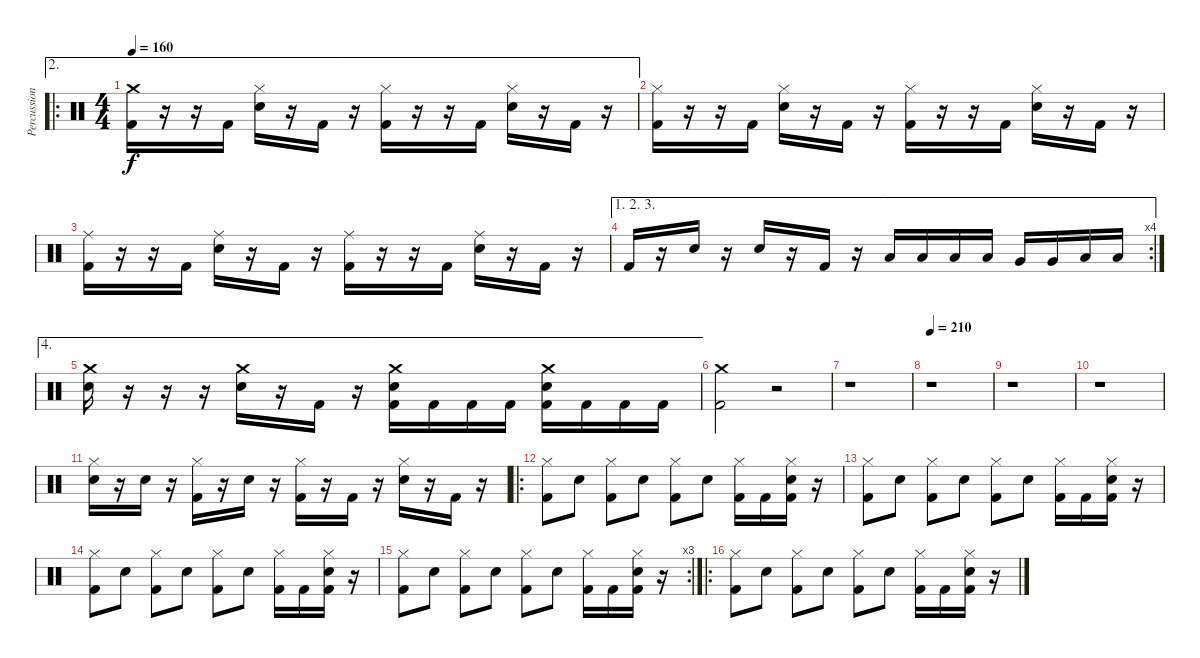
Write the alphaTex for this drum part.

\track ("Percussion" "Percussion") {instrument percussion}
\staff {score}
\articulation defaults
\ae 2
\ro
\ts (4 4)
\tempo 160
\clef neutral
\ks c
("Crash medium (hit)" "Kick (hit) 2").16{dy f} r.16 r.16 "Kick (hit) 2".16 ("Hi-Hat (closed)" "Snare (hit) 2").16 r.16 "Kick (hit) 2".16 r.16 ("Hi-Hat (closed)" "Kick (hit) 2").16 r.16 r.16 "Kick (hit) 2".16 ("Hi-Hat (closed)" "Snare (hit) 2").16 r.16 "Kick (hit) 2".16 r.16 |
("Hi-Hat (closed)" "Kick (hit) 2").16 r.16 r.16 "Kick (hit) 2".16 ("Hi-Hat (closed)" "Snare (hit) 2").16 r.16 "Kick (hit) 2".16 r.16 ("Hi-Hat (closed)" "Kick (hit) 2").16 r.16 r.16 "Kick (hit) 2".16 ("Hi-Hat (closed)" "Snare (hit) 2").16 r.16 "Kick (hit) 2".16 r.16 |
("Ride (middle)" "Kick (hit) 2").16 r.16 r.16 "Kick (hit) 2".16 ("Ride (middle)" "Snare (hit) 2").16 r.16 "Kick (hit) 2".16 r.16 ("Ride (middle)" "Kick (hit) 2").16 r.16 r.16 "Kick (hit) 2".16 ("Ride (middle)" "Snare (hit) 2").16 r.16 "Kick (hit) 2".16 r.16 |
\ae (1 2 3)
\rc 4 "Kick (hit) 2".16
r.16 "Snare (hit) 2".16 r.16 "Snare (hit) 2".16 r.16 "Kick (hit) 2".16 r.16 "Low Tom (hit)".16 "Low Tom (hit)".16 "Low Tom (hit)".16 "Low Tom (hit)".16 "Very Low Tom (hit)".16 "Very Low Tom (hit)".16 "Low Floor Tom (hit)".16 "Low Floor Tom (hit)".16 |
\ae 4
("Crash medium (hit)" "Snare (hit) 2").16 r.16 r.16 r.16 ("Crash medium (hit)" "Snare (hit) 2").16 r.16 "Kick (hit) 2".16 r.16 ("Crash medium (hit)" "Snare (hit) 2" "Kick (hit) 2").16 "Kick (hit) 2".16 "Kick (hit) 2".16 "Kick (hit) 2".16 ("Crash medium (hit)" "Snare (hit) 2" "Kick (hit) 2").16 "Kick (hit) 2".16 "Kick (hit) 2".16 "Kick (hit) 2".16 |
("Crash medium (hit)" "Kick (hit) 2").2 r.2 |
r.1 |
\tempo 210
r.1 |
r.1 |
r.1 |
("Hi-Hat (closed)" "Snare (hit) 2").16 r.16 "Snare (hit) 2".16 r.16 ("Hi-Hat (closed)" "Kick (hit) 2").16 r.16 "Snare (hit) 2".16 r.16 ("Hi-Hat (closed)" "Kick (hit) 2").16 r.16 "Kick (hit) 2".16 r.16 ("Hi-Hat (closed)" "Snare (hit) 2").16 r.16 "Kick (hit) 2".16 r.16 |
\ro
("Hi-Hat (closed)" "Kick (hit) 2").8 "Snare (hit) 2".8 ("Hi-Hat (closed)" "Kick (hit) 2").8 "Snare (hit) 2".8 ("Hi-Hat (closed)" "Kick (hit) 2").8 "Snare (hit) 2".8 ("Hi-Hat (closed)" "Kick (hit) 2").16 "Kick (hit) 2".16 ("Hi-Hat (closed)" "Snare (hit) 2" "Kick (hit) 2").16 r.16 |
("Hi-Hat (closed)" "Kick (hit) 2").8 "Snare (hit) 2".8 ("Hi-Hat (closed)" "Kick (hit) 2").8 "Snare (hit) 2".8 ("Hi-Hat (closed)" "Kick (hit) 2").8 "Snare (hit) 2".8 ("Hi-Hat (closed)" "Kick (hit) 2").16 "Kick (hit) 2".16 ("Hi-Hat (closed)" "Snare (hit) 2" "Kick (hit) 2").16 r.16 |
("Hi-Hat (closed)" "Kick (hit) 2").8 "Snare (hit) 2".8 ("Hi-Hat (closed)" "Kick (hit) 2").8 "Snare (hit) 2".8 ("Hi-Hat (closed)" "Kick (hit) 2").8 "Snare (hit) 2".8 ("Hi-Hat (closed)" "Kick (hit) 2").16 "Kick (hit) 2".16 ("Hi-Hat (closed)" "Snare (hit) 2" "Kick (hit) 2").16 r.16 |
\rc 3
("Hi-Hat (closed)" "Kick (hit) 2").8 "Snare (hit) 2".8 ("Hi-Hat (closed)" "Kick (hit) 2").8 "Snare (hit) 2".8 ("Hi-Hat (closed)" "Kick (hit) 2").8 "Snare (hit) 2".8 ("Hi-Hat (closed)" "Kick (hit) 2").16 "Kick (hit) 2".16 ("Hi-Hat (closed)" "Snare (hit) 2" "Kick (hit) 2").16 r.16 |
\ro
("Hi-Hat (closed)" "Kick (hit) 2").8 "Snare (hit) 2".8 ("Hi-Hat (closed)" "Kick (hit) 2").8 "Snare (hit) 2".8 ("Hi-Hat (closed)" "Kick (hit) 2").8 "Snare (hit) 2".8 ("Hi-Hat (closed)" "Kick (hit) 2").16 "Kick (hit) 2".16 ("Hi-Hat (closed)" "Snare (hit) 2" "Kick (hit) 2").16 r.16
